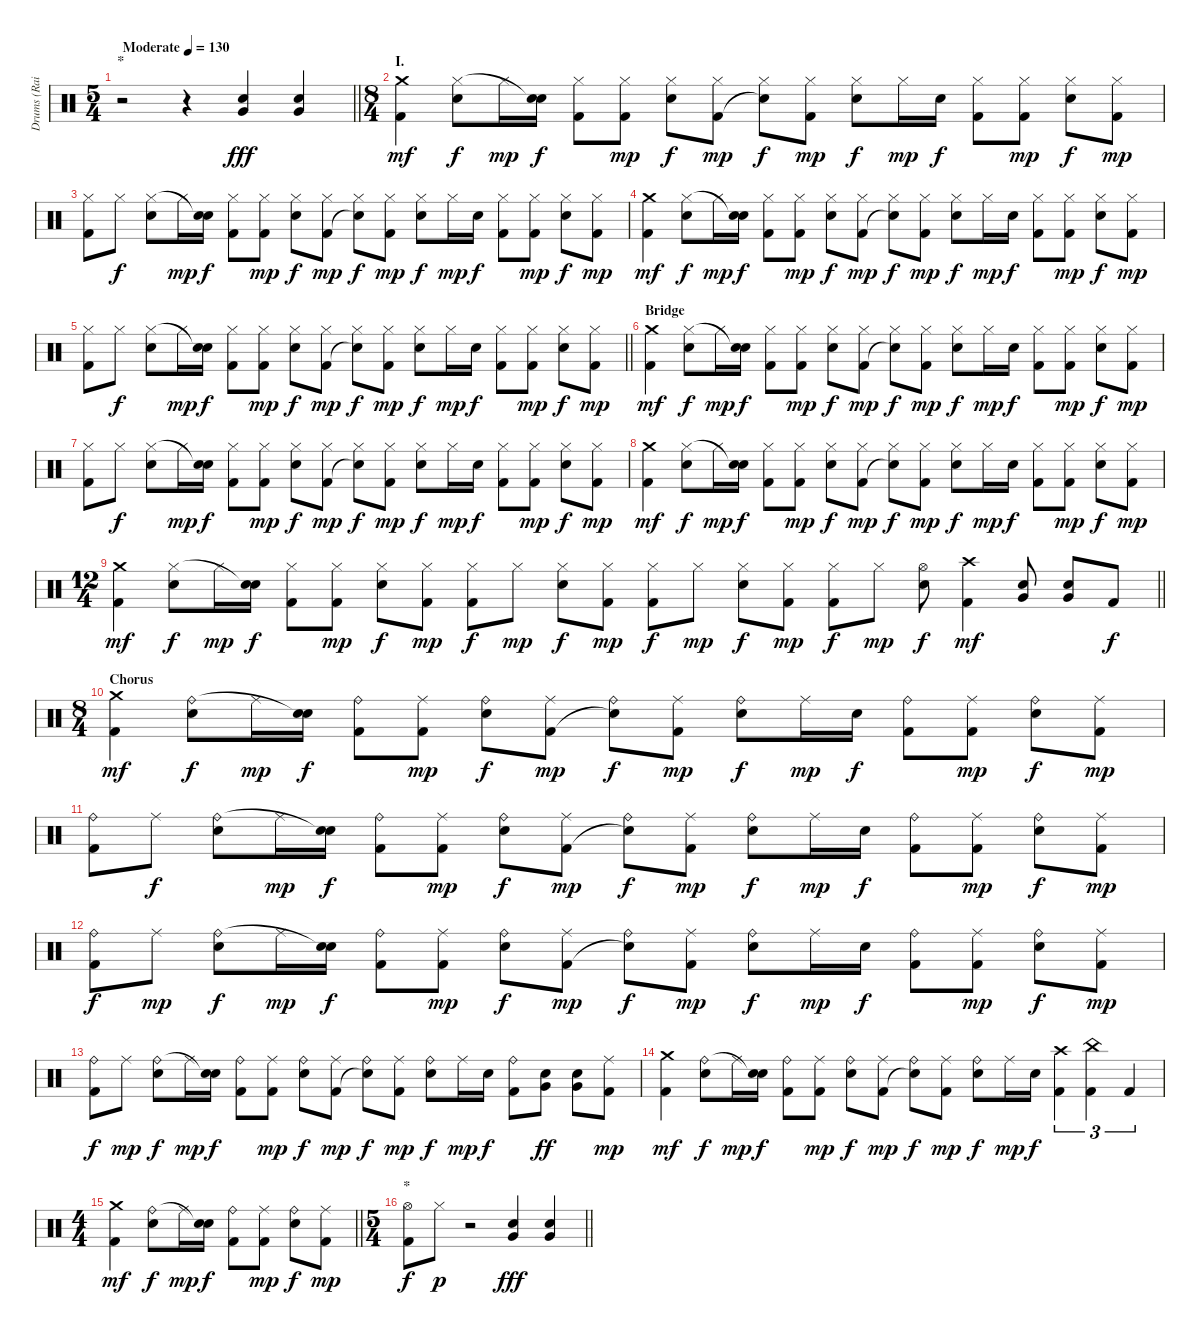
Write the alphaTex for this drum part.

\track ("Drums (Raimund)" "Drums (Rai") {instrument percussion}
\staff {score}
\articulation defaults
\ts (5 4)
\section ("" "*")
\tempo (130 "Moderate")
\clef neutral
\barLineRight lightlight
\ks c
r.2{dy fff} r.4 ("Snare (hit) 2" "Very Low Tom (hit)").4 ("Snare (hit) 2" "Very Low Tom (hit)").4 |
\ts (8 4)
\section ("" "I.")
("Crash medium (hit)" "Kick (hit) 2").4{dy mf} ("Snare (hit) 2" "Hi-Hat (closed)").8{dy f} "Hi-Hat (closed)".16{dy mp} ("Snare (hit) 2" "Snare (hit)"{t}).16{dy f} ("Hi-Hat (closed)" "Kick (hit) 2").8 ("Hi-Hat (closed)" "Kick (hit) 2").8{dy mp} ("Snare (hit) 2" "Hi-Hat (closed)").8{dy f} ("Hi-Hat (closed)" "Kick (hit) 2").8{dy mp} ("Hi-Hat (closed)" "Snare (hit)"{t}).8{dy f} ("Hi-Hat (closed)" "Kick (hit) 2").8{dy mp} ("Snare (hit) 2" "Hi-Hat (closed)").8{dy f} "Hi-Hat (closed)".16{dy mp} "Snare (hit) 2".16{dy f} ("Hi-Hat (closed)" "Kick (hit) 2").8 ("Hi-Hat (closed)" "Kick (hit) 2").8{dy mp} ("Snare (hit) 2" "Hi-Hat (closed)").8{dy f} ("Hi-Hat (closed)" "Kick (hit) 2").8{dy mp} |
("Hi-Hat (closed)" "Kick (hit) 2").8 "Hi-Hat (closed)".8{dy f} ("Snare (hit) 2" "Hi-Hat (closed)").8 "Hi-Hat (closed)".16{dy mp} ("Snare (hit) 2" "Snare (hit)"{t}).16{dy f} ("Hi-Hat (closed)" "Kick (hit) 2").8 ("Hi-Hat (closed)" "Kick (hit) 2").8{dy mp} ("Snare (hit) 2" "Hi-Hat (closed)").8{dy f} ("Hi-Hat (closed)" "Kick (hit) 2").8{dy mp} ("Hi-Hat (closed)" "Snare (hit)"{t}).8{dy f} ("Hi-Hat (closed)" "Kick (hit) 2").8{dy mp} ("Snare (hit) 2" "Hi-Hat (closed)").8{dy f} "Hi-Hat (closed)".16{dy mp} "Snare (hit) 2".16{dy f} ("Hi-Hat (closed)" "Kick (hit) 2").8 ("Hi-Hat (closed)" "Kick (hit) 2").8{dy mp} ("Snare (hit) 2" "Hi-Hat (closed)").8{dy f} ("Hi-Hat (closed)" "Kick (hit) 2").8{dy mp} |
("Crash medium (hit)" "Kick (hit) 2").4{dy mf} ("Snare (hit) 2" "Hi-Hat (closed)").8{dy f} "Hi-Hat (closed)".16{dy mp} ("Snare (hit) 2" "Snare (hit)"{t}).16{dy f} ("Hi-Hat (closed)" "Kick (hit) 2").8 ("Hi-Hat (closed)" "Kick (hit) 2").8{dy mp} ("Snare (hit) 2" "Hi-Hat (closed)").8{dy f} ("Hi-Hat (closed)" "Kick (hit) 2").8{dy mp} ("Hi-Hat (closed)" "Snare (hit)"{t}).8{dy f} ("Hi-Hat (closed)" "Kick (hit) 2").8{dy mp} ("Snare (hit) 2" "Hi-Hat (closed)").8{dy f} "Hi-Hat (closed)".16{dy mp} "Snare (hit) 2".16{dy f} ("Hi-Hat (closed)" "Kick (hit) 2").8 ("Hi-Hat (closed)" "Kick (hit) 2").8{dy mp} ("Snare (hit) 2" "Hi-Hat (closed)").8{dy f} ("Hi-Hat (closed)" "Kick (hit) 2").8{dy mp} |
\barLineRight lightlight
("Hi-Hat (closed)" "Kick (hit) 2").8 "Hi-Hat (closed)".8{dy f} ("Snare (hit) 2" "Hi-Hat (closed)").8 "Hi-Hat (closed)".16{dy mp} ("Snare (hit) 2" "Snare (hit)"{t}).16{dy f} ("Hi-Hat (closed)" "Kick (hit) 2").8 ("Hi-Hat (closed)" "Kick (hit) 2").8{dy mp} ("Snare (hit) 2" "Hi-Hat (closed)").8{dy f} ("Hi-Hat (closed)" "Kick (hit) 2").8{dy mp} ("Hi-Hat (closed)" "Snare (hit)"{t}).8{dy f} ("Hi-Hat (closed)" "Kick (hit) 2").8{dy mp} ("Snare (hit) 2" "Hi-Hat (closed)").8{dy f} "Hi-Hat (closed)".16{dy mp} "Snare (hit) 2".16{dy f} ("Hi-Hat (closed)" "Kick (hit) 2").8 ("Hi-Hat (closed)" "Kick (hit) 2").8{dy mp} ("Snare (hit) 2" "Hi-Hat (closed)").8{dy f} ("Hi-Hat (closed)" "Kick (hit) 2").8{dy mp} |
\section ("" "Bridge")
("Crash medium (hit)" "Kick (hit) 2").4{dy mf} ("Snare (hit) 2" "Hi-Hat (closed)").8{dy f} "Hi-Hat (closed)".16{dy mp} ("Snare (hit) 2" "Snare (hit)"{t}).16{dy f} ("Hi-Hat (closed)" "Kick (hit) 2").8 ("Hi-Hat (closed)" "Kick (hit) 2").8{dy mp} ("Snare (hit) 2" "Hi-Hat (closed)").8{dy f} ("Hi-Hat (closed)" "Kick (hit) 2").8{dy mp} ("Hi-Hat (closed)" "Snare (hit)"{t}).8{dy f} ("Hi-Hat (closed)" "Kick (hit) 2").8{dy mp} ("Snare (hit) 2" "Hi-Hat (closed)").8{dy f} "Hi-Hat (closed)".16{dy mp} "Snare (hit) 2".16{dy f} ("Hi-Hat (closed)" "Kick (hit) 2").8 ("Hi-Hat (closed)" "Kick (hit) 2").8{dy mp} ("Snare (hit) 2" "Hi-Hat (closed)").8{dy f} ("Hi-Hat (closed)" "Kick (hit) 2").8{dy mp} |
("Hi-Hat (closed)" "Kick (hit) 2").8 "Hi-Hat (closed)".8{dy f} ("Snare (hit) 2" "Hi-Hat (closed)").8 "Hi-Hat (closed)".16{dy mp} ("Snare (hit) 2" "Snare (hit)"{t}).16{dy f} ("Hi-Hat (closed)" "Kick (hit) 2").8 ("Hi-Hat (closed)" "Kick (hit) 2").8{dy mp} ("Snare (hit) 2" "Hi-Hat (closed)").8{dy f} ("Hi-Hat (closed)" "Kick (hit) 2").8{dy mp} ("Hi-Hat (closed)" "Snare (hit)"{t}).8{dy f} ("Hi-Hat (closed)" "Kick (hit) 2").8{dy mp} ("Snare (hit) 2" "Hi-Hat (closed)").8{dy f} "Hi-Hat (closed)".16{dy mp} "Snare (hit) 2".16{dy f} ("Hi-Hat (closed)" "Kick (hit) 2").8 ("Hi-Hat (closed)" "Kick (hit) 2").8{dy mp} ("Snare (hit) 2" "Hi-Hat (closed)").8{dy f} ("Hi-Hat (closed)" "Kick (hit) 2").8{dy mp} |
("Crash medium (hit)" "Kick (hit) 2").4{dy mf} ("Snare (hit) 2" "Hi-Hat (closed)").8{dy f} "Hi-Hat (closed)".16{dy mp} ("Snare (hit) 2" "Snare (hit)"{t}).16{dy f} ("Hi-Hat (closed)" "Kick (hit) 2").8 ("Hi-Hat (closed)" "Kick (hit) 2").8{dy mp} ("Snare (hit) 2" "Hi-Hat (closed)").8{dy f} ("Hi-Hat (closed)" "Kick (hit) 2").8{dy mp} ("Hi-Hat (closed)" "Snare (hit)"{t}).8{dy f} ("Hi-Hat (closed)" "Kick (hit) 2").8{dy mp} ("Snare (hit) 2" "Hi-Hat (closed)").8{dy f} "Hi-Hat (closed)".16{dy mp} "Snare (hit) 2".16{dy f} ("Hi-Hat (closed)" "Kick (hit) 2").8 ("Hi-Hat (closed)" "Kick (hit) 2").8{dy mp} ("Snare (hit) 2" "Hi-Hat (closed)").8{dy f} ("Hi-Hat (closed)" "Kick (hit) 2").8{dy mp} |
\ts (12 4)
\barLineRight lightlight
("Crash medium (hit)" "Kick (hit) 2").4{dy mf} ("Snare (hit) 2" "Hi-Hat (closed)").8{dy f} "Hi-Hat (closed)".16{dy mp} ("Snare (hit) 2" "Snare (hit)"{t}).16{dy f} ("Hi-Hat (closed)" "Kick (hit) 2").8 ("Hi-Hat (closed)" "Kick (hit) 2").8{dy mp} ("Snare (hit) 2" "Hi-Hat (closed)").8{dy f} ("Hi-Hat (closed)" "Kick (hit) 2").8{dy mp} ("Hi-Hat (closed)" "Kick (hit) 2").8{dy f} "Hi-Hat (closed)".8{dy mp} ("Snare (hit) 2" "Hi-Hat (closed)").8{dy f} ("Hi-Hat (closed)" "Kick (hit) 2").8{dy mp} ("Hi-Hat (closed)" "Kick (hit) 2").8{dy f} "Hi-Hat (closed)".8{dy mp} ("Snare (hit) 2" "Hi-Hat (closed)").8{dy f} ("Hi-Hat (closed)" "Kick (hit) 2").8{dy mp} ("Hi-Hat (closed)" "Kick (hit) 2").8{dy f} "Hi-Hat (closed)".8{dy mp} ("Snare (hit) 2" "Hi-Hat (open)").8{dy f} ("Crash high (hit)" "Kick (hit) 2").4{dy mf} ("Snare (hit) 2" "Very Low Tom (hit)").8 ("Snare (hit) 2" "Very Low Tom (hit)").8 "Kick (hit) 2".8{dy f} |
\ts (8 4)
\section ("" "Chorus")
("Crash medium (hit)" "Kick (hit) 2").4{dy mf} ("Snare (hit) 2" "Ride (bell)").8{dy f} "Ride (middle)".16{dy mp} ("Snare (hit) 2" "Snare (hit)"{t}).16{dy f} ("Ride (bell)" "Kick (hit) 2").8 ("Ride (middle)" "Kick (hit) 2").8{dy mp} ("Snare (hit) 2" "Ride (bell)").8{dy f} ("Ride (middle)" "Kick (hit) 2").8{dy mp} ("Ride (bell)" "Snare (hit)"{t}).8{dy f} ("Ride (middle)" "Kick (hit) 2").8{dy mp} ("Snare (hit) 2" "Ride (bell)").8{dy f} "Ride (middle)".16{dy mp} "Snare (hit) 2".16{dy f} ("Ride (bell)" "Kick (hit) 2").8 ("Ride (middle)" "Kick (hit) 2").8{dy mp} ("Snare (hit) 2" "Ride (bell)").8{dy f} ("Ride (middle)" "Kick (hit) 2").8{dy mp} |
("Ride (bell)" "Kick (hit) 2").8 "Ride (middle)".8{dy f} ("Snare (hit) 2" "Ride (bell)").8 "Ride (middle)".16{dy mp} ("Snare (hit) 2" "Snare (hit)"{t}).16{dy f} ("Ride (bell)" "Kick (hit) 2").8 ("Ride (middle)" "Kick (hit) 2").8{dy mp} ("Snare (hit) 2" "Ride (bell)").8{dy f} ("Ride (middle)" "Kick (hit) 2").8{dy mp} ("Ride (bell)" "Snare (hit)"{t}).8{dy f} ("Ride (middle)" "Kick (hit) 2").8{dy mp} ("Snare (hit) 2" "Ride (bell)").8{dy f} "Ride (middle)".16{dy mp} "Snare (hit) 2".16{dy f} ("Ride (bell)" "Kick (hit) 2").8 ("Ride (middle)" "Kick (hit) 2").8{dy mp} ("Snare (hit) 2" "Ride (bell)").8{dy f} ("Ride (middle)" "Kick (hit) 2").8{dy mp} |
("Ride (bell)" "Kick (hit) 2").8{dy f} "Ride (middle)".8{dy mp} ("Snare (hit) 2" "Ride (bell)").8{dy f} "Ride (middle)".16{dy mp} ("Snare (hit) 2" "Snare (hit)"{t}).16{dy f} ("Ride (bell)" "Kick (hit) 2").8 ("Ride (middle)" "Kick (hit) 2").8{dy mp} ("Snare (hit) 2" "Ride (bell)").8{dy f} ("Ride (middle)" "Kick (hit) 2").8{dy mp} ("Ride (bell)" "Snare (hit)"{t}).8{dy f} ("Ride (middle)" "Kick (hit) 2").8{dy mp} ("Snare (hit) 2" "Ride (bell)").8{dy f} "Ride (middle)".16{dy mp} "Snare (hit) 2".16{dy f} ("Ride (bell)" "Kick (hit) 2").8 ("Ride (middle)" "Kick (hit) 2").8{dy mp} ("Snare (hit) 2" "Ride (bell)").8{dy f} ("Ride (middle)" "Kick (hit) 2").8{dy mp} |
("Ride (bell)" "Kick (hit) 2").8{dy f} "Ride (middle)".8{dy mp} ("Snare (hit) 2" "Ride (bell)").8{dy f} "Ride (middle)".16{dy mp} ("Snare (hit) 2" "Snare (hit)"{t}).16{dy f} ("Ride (bell)" "Kick (hit) 2").8 ("Ride (middle)" "Kick (hit) 2").8{dy mp} ("Snare (hit) 2" "Ride (bell)").8{dy f} ("Ride (middle)" "Kick (hit) 2").8{dy mp} ("Ride (bell)" "Snare (hit)"{t}).8{dy f} ("Ride (middle)" "Kick (hit) 2").8{dy mp} ("Snare (hit) 2" "Ride (bell)").8{dy f} "Ride (middle)".16{dy mp} "Snare (hit) 2".16{dy f} ("Ride (bell)" "Kick (hit) 2").8 ("Snare (hit) 2" "Very Low Tom (hit)").8{dy ff} ("Snare (hit) 2" "Very Low Tom (hit)").8 ("Ride (middle)" "Kick (hit) 2").8{dy mp} |
("Crash medium (hit)" "Kick (hit) 2").4{dy mf} ("Snare (hit) 2" "Ride (bell)").8{dy f} "Ride (middle)".16{dy mp} ("Snare (hit) 2" "Snare (hit)"{t}).16{dy f} ("Ride (bell)" "Kick (hit) 2").8 ("Ride (middle)" "Kick (hit) 2").8{dy mp} ("Snare (hit) 2" "Ride (bell)").8{dy f} ("Ride (middle)" "Kick (hit) 2").8{dy mp} ("Ride (bell)" "Snare (hit)"{t}).8{dy f} ("Ride (middle)" "Kick (hit) 2").8{dy mp} ("Snare (hit) 2" "Ride (bell)").8{dy f} "Ride (middle)".16{dy mp} "Snare (hit) 2".16{dy f} ("Crash high (hit)" "Kick (hit) 2").4{tu (3 2)} ("China (hit)" "Kick (hit) 2").4{tu (3 2)} "Kick (hit) 2".4{tu (3 2)} |
\ts (4 4)
\barLineRight lightlight
("Crash medium (hit)" "Kick (hit) 2").4{dy mf} ("Snare (hit) 2" "Ride (bell)").8{dy f} "Ride (middle)".16{dy mp} ("Snare (hit) 2" "Snare (hit)"{t}).16{dy f} ("Ride (bell)" "Kick (hit) 2").8 ("Ride (middle)" "Kick (hit) 2").8{dy mp} ("Snare (hit) 2" "Ride (bell)").8{dy f} ("Ride (middle)" "Kick (hit) 2").8{dy mp} |
\ts (5 4)
\section ("" "*")
\barLineRight lightlight
("Hi-Hat (open)" "Kick (hit) 2").8{dy f} "Hi-Hat (closed)".8{dy p} r.2 ("Snare (hit) 2" "Very Low Tom (hit)").4{dy fff} ("Snare (hit) 2" "Very Low Tom (hit)").4
